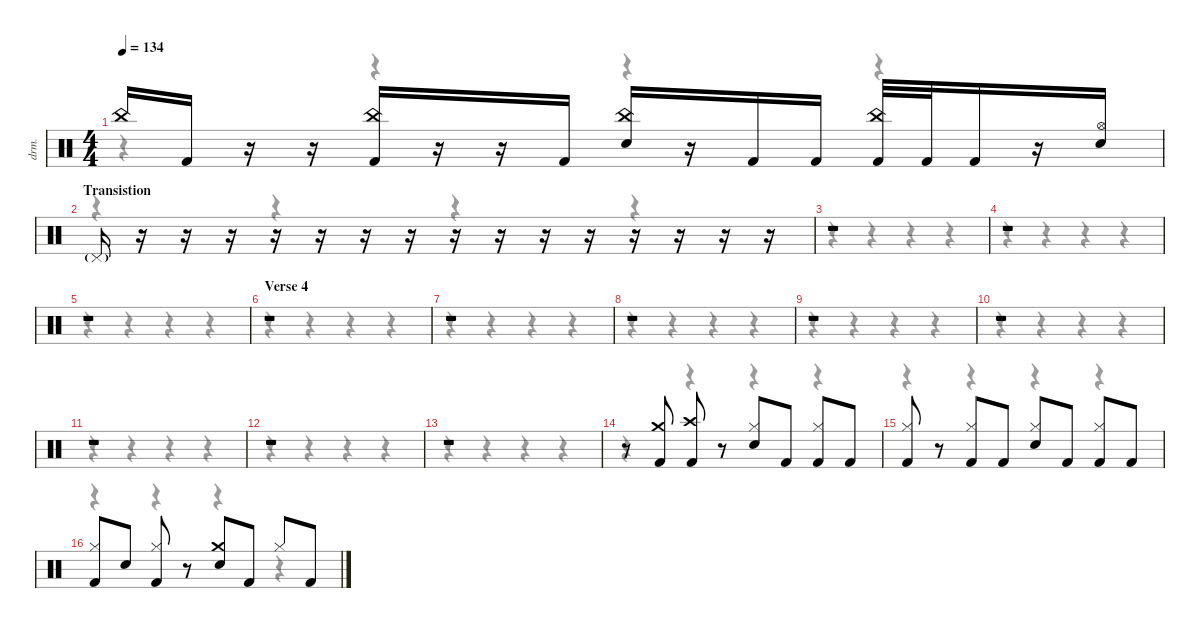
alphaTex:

\defaultSystemsLayout 4
\hideDynamics
\bracketExtendMode nobrackets
\track ("Alex Ballew" "drm.") {instrument percussion}
\staff {score}
\articulation defaults
\voice
\ts (4 4)
\tempo 134
\clef neutral
\ks c "China (hit)".16{dy f} "Kick (hit) 2".16
r.16 r.16 ("China (hit)" "Kick (hit) 2").16 r.16 r.16 "Kick (hit) 2".16 ("China (hit)" "Snare (hit) 2").16 r.16 "Kick (hit) 2".16 "Kick (hit) 2".16 ("China (hit)" "Kick (hit) 2").32 "Kick (hit) 2".32 "Kick (hit) 2".16 r.16 ("Hi-Hat (open)" "Snare (hit) 2").16 |
\section ("" "Transistion")
"Pedal Hi-Hat (hit)"{g}.16{dy mf} r.16 r.16 r.16 r.16 r.16 r.16 r.16 r.16 r.16 r.16 r.16 r.16 r.16 r.16 r.16 |
r.1 |
r.1 |
r.1 |
\section ("" "Verse 4")
r.1 |
r.1 |
r.1 |
r.1 |
r.1 |
r.1 |
r.1 |
r.1 |
r.8 ("Crash medium (hit)" "Kick (hit) 2").8{dy f} ("Crash high (hit)" "Kick (hit) 2").8 r.8 ("Hi-Hat (closed)" "Snare (hit) 2").8 "Kick (hit) 2".8 ("Hi-Hat (closed)" "Kick (hit) 2").8 "Kick (hit) 2".8 |
("Hi-Hat (closed)" "Kick (hit) 2").8 r.8 ("Hi-Hat (closed)" "Kick (hit) 2").8 "Kick (hit) 2".8 ("Hi-Hat (closed)" "Snare (hit) 2").8 "Kick (hit) 2".8 ("Hi-Hat (closed)" "Kick (hit) 2").8 "Kick (hit) 2".8 |
("Hi-Hat (closed)" "Kick (hit) 2").8 "Snare (hit) 2".8 ("Hi-Hat (closed)" "Kick (hit) 2").8 r.8 ("Crash medium (hit)" "Snare (hit) 2").8 "Kick (hit) 2".8 "Hi-Hat (closed)".8 "Kick (hit) 2".8
\voice
\clef neutral
\ottava regular
\simile none
\ks c
r.4{dy mf} r.4 r.4 r.4 |
r.4 r.4 r.4 r.4 |
r.4 r.4 r.4 r.4 |
r.4 r.4 r.4 r.4 |
r.4 r.4 r.4 r.4 |
r.4 r.4 r.4 r.4 |
r.4 r.4 r.4 r.4 |
r.4 r.4 r.4 r.4 |
r.4 r.4 r.4 r.4 |
r.4 r.4 r.4 r.4 |
r.4 r.4 r.4 r.4 |
r.4 r.4 r.4 r.4 |
r.4 r.4 r.4 r.4 |
r.4 r.4 r.4 r.4 |
r.4 r.4 r.4 r.4 |
r.4 r.4 r.4 r.4
